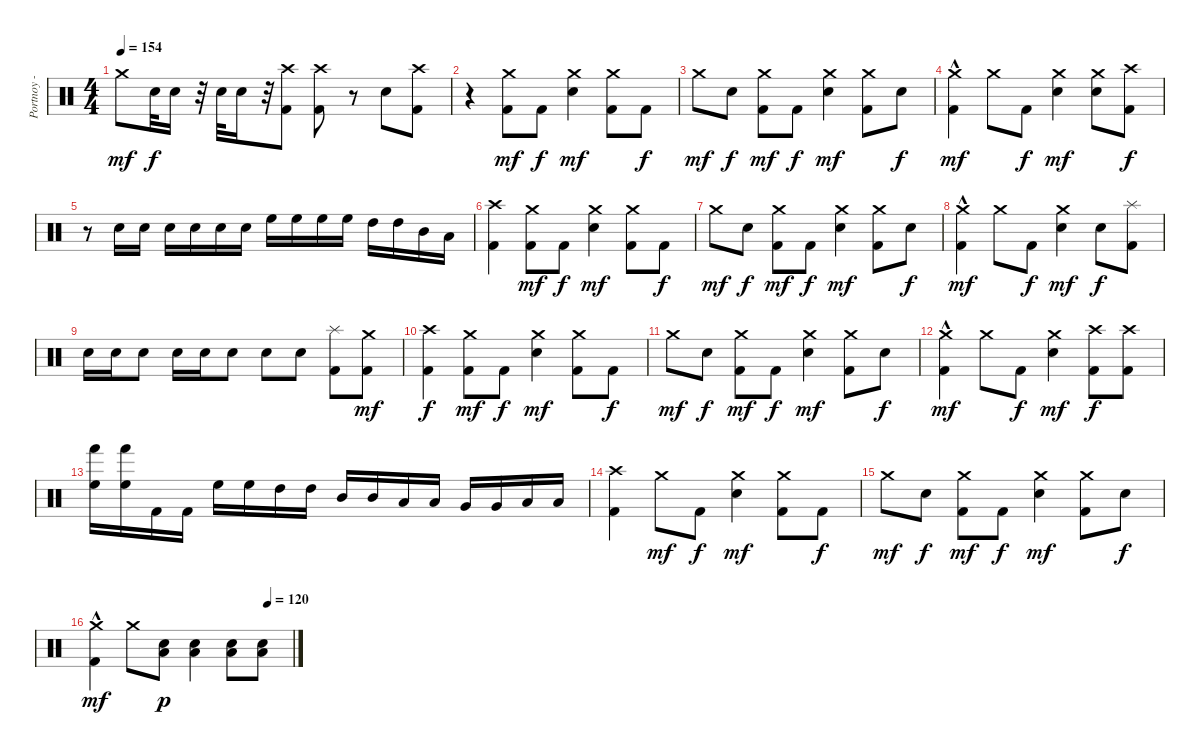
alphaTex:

\track ("Portnoy - Drums" "Portnoy - ") {instrument percussion}
\staff {score}
\articulation defaults
\ts (4 4)
\tempo 154
\clef neutral
\ks c "Crash medium (hit)".8{dy mf} "Electric Snare (hit)".32{dy f} "Electric Snare (hit)".16
r.32 "Electric Snare (hit)".32 "Electric Snare (hit)".16 r.32 ("Kick (hit) 2" "Crash high (hit)").8 ("Kick (hit) 2" "Crash high (hit)").8 r.8 "Electric Snare (hit)".8 ("Crash high (hit)" "Kick (hit) 2").8 |
r.4 ("Kick (hit) 2" "Crash medium (hit)").8{dy mf} "Kick (hit) 2".8{dy f} ("Electric Snare (hit)" "Crash medium (hit)").4{dy mf} ("Kick (hit) 2" "Crash medium (hit)").8 "Kick (hit) 2".8{dy f} |
"Crash medium (hit)".8{dy mf} "Electric Snare (hit)".8{dy f} ("Kick (hit) 2" "Crash medium (hit)").8{dy mf} "Kick (hit) 2".8{dy f} ("Electric Snare (hit)" "Crash medium (hit)").4{dy mf} ("Kick (hit) 2" "Crash medium (hit)").8 "Electric Snare (hit)".8{dy f} |
("Kick (hit) 2"{hac} "Crash medium (hit)").4{dy mf} "Crash medium (hit)".8 "Kick (hit) 2".8{dy f} ("Electric Snare (hit)" "Crash medium (hit)").4{dy mf} ("Electric Snare (hit)" "Crash medium (hit)").8 ("Kick (hit) 2" "Crash high (hit)").8{dy f} |
r.8 "Electric Snare (hit)".16 "Electric Snare (hit)".16 "Electric Snare (hit)".16 "Electric Snare (hit)".16 "Electric Snare (hit)".16 "Electric Snare (hit)".16 "High Floor Tom (hit)".16 "High Floor Tom (hit)".16 "High Floor Tom (hit)".16 "High Floor Tom (hit)".16 "High Tom (hit)".16 "High Tom (hit)".16 "Mid Tom (hit)".16 "Low Tom (hit)".16 |
("Crash high (hit)" "Kick (hit) 2").4 ("Kick (hit) 2" "Crash medium (hit)").8{dy mf} "Kick (hit) 2".8{dy f} ("Electric Snare (hit)" "Crash medium (hit)").4{dy mf} ("Kick (hit) 2" "Crash medium (hit)").8 "Kick (hit) 2".8{dy f} |
"Crash medium (hit)".8{dy mf} "Electric Snare (hit)".8{dy f} ("Kick (hit) 2" "Crash medium (hit)").8{dy mf} "Kick (hit) 2".8{dy f} ("Electric Snare (hit)" "Crash medium (hit)").4{dy mf} ("Kick (hit) 2" "Crash medium (hit)").8 "Electric Snare (hit)".8{dy f} |
("Kick (hit) 2"{hac} "Crash medium (hit)").4{dy mf} "Crash medium (hit)".8 "Kick (hit) 2".8{dy f} ("Electric Snare (hit)" "Crash medium (hit)").4{dy mf} "Electric Snare (hit)".8{dy f} ("Kick (hit) 2" "Splash (hit)").8 |
"Electric Snare (hit)".16 "Electric Snare (hit)".16 "Electric Snare (hit)".8 "Electric Snare (hit)".16 "Electric Snare (hit)".16 "Electric Snare (hit)".8 "Electric Snare (hit)".8 "Electric Snare (hit)".8 ("Kick (hit) 2" "Splash (hit)").8 ("Kick (hit) 2" "Crash medium (hit)").8{dy mf} |
("Kick (hit) 2" "Crash high (hit)").4{dy f} ("Kick (hit) 2" "Crash medium (hit)").8{dy mf} "Kick (hit) 2".8{dy f} ("Electric Snare (hit)" "Crash medium (hit)").4{dy mf} ("Kick (hit) 2" "Crash medium (hit)").8 "Kick (hit) 2".8{dy f} |
"Crash medium (hit)".8{dy mf} "Electric Snare (hit)".8{dy f} ("Kick (hit) 2" "Crash medium (hit)").8{dy mf} "Kick (hit) 2".8{dy f} ("Electric Snare (hit)" "Crash medium (hit)").4{dy mf} ("Kick (hit) 2" "Crash medium (hit)").8 "Electric Snare (hit)".8{dy f} |
("Kick (hit) 2"{hac} "Crash medium (hit)").4{dy mf} "Crash medium (hit)".8 "Kick (hit) 2".8{dy f} ("Electric Snare (hit)" "Crash medium (hit)").4{dy mf} ("Kick (hit) 2" "Crash high (hit)").8{dy f} ("Kick (hit) 2" "Crash high (hit)").8 |
("High Floor Tom (hit)" "Hand (hit)").16 ("High Floor Tom (hit)" "Hand (hit)").16 "Kick (hit) 2".16 "Kick (hit) 2".16 "High Floor Tom (hit)".16 "High Floor Tom (hit)".16 "High Tom (hit)".16 "High Tom (hit)".16 "Mid Tom (hit)".16 "Mid Tom (hit)".16 "Low Tom (hit)".16 "Low Tom (hit)".16 "Very Low Tom (hit)".16 "Very Low Tom (hit)".16 "Low Floor Tom (hit)".16 "Low Floor Tom (hit)".16 |
("Crash high (hit)" "Kick (hit) 2").4 "Crash medium (hit)".8{dy mf} "Kick (hit) 2".8{dy f} ("Electric Snare (hit)" "Crash medium (hit)").4{dy mf} ("Kick (hit) 2" "Crash medium (hit)").8 "Kick (hit) 2".8{dy f} |
"Crash medium (hit)".8{dy mf} "Electric Snare (hit)".8{dy f} ("Kick (hit) 2" "Crash medium (hit)").8{dy mf} "Kick (hit) 2".8{dy f} ("Electric Snare (hit)" "Crash medium (hit)").4{dy mf} ("Kick (hit) 2" "Crash medium (hit)").8 "Electric Snare (hit)".8{dy f} |
\tempo (120 0.875)
("Kick (hit) 2"{hac} "Crash medium (hit)").4{dy mf} "Crash medium (hit)".8 ("Electric Snare (hit)" "Low Tom (hit)").8{dy p} ("Electric Snare (hit)" "Low Tom (hit)").4 ("Electric Snare (hit)" "Low Tom (hit)").8 ("Electric Snare (hit)" "Low Tom (hit)").8
